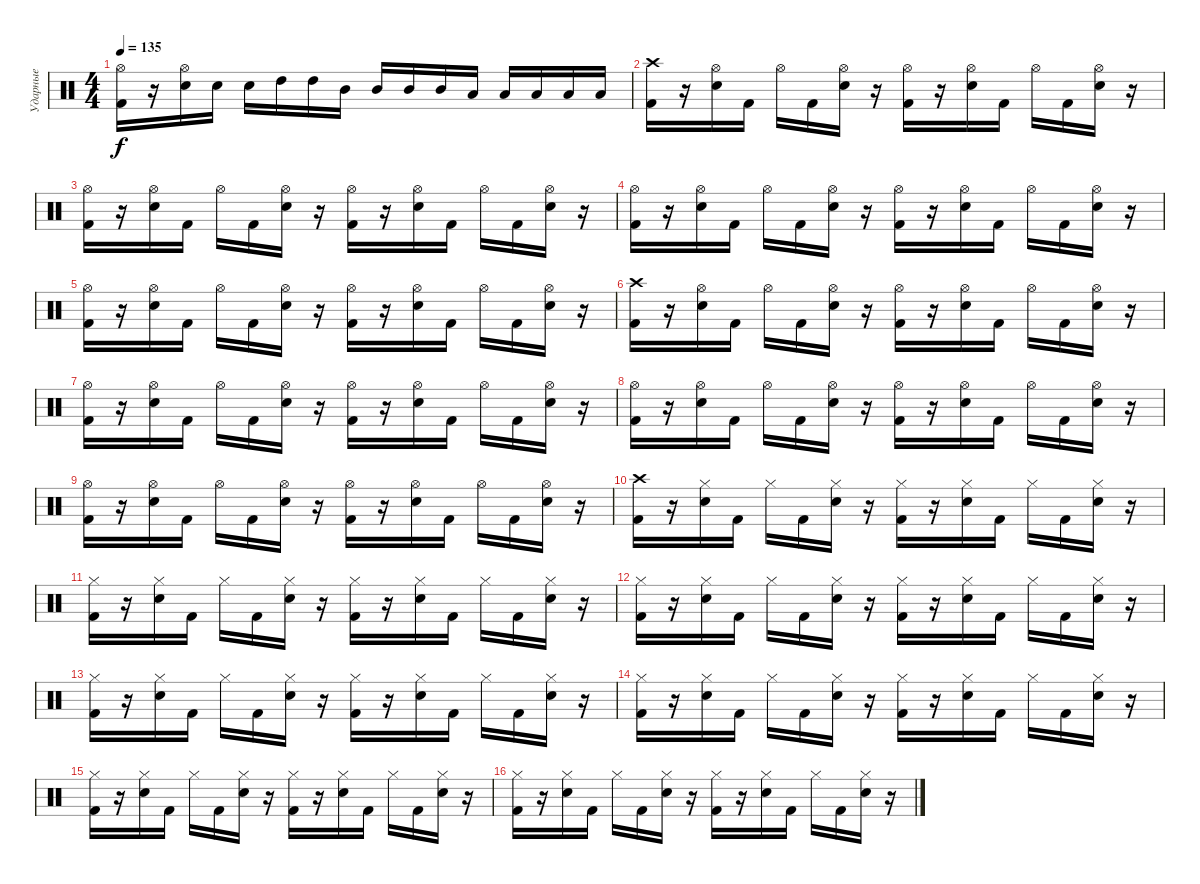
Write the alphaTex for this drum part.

\track ("Ударные" "Ударные") {instrument percussion}
\staff {score}
\articulation defaults
\ts (4 4)
\tempo 135
\clef neutral
\ks c
("Kick (hit) 2" "Hi-Hat (open)").16{dy f} r.16 ("Electric Snare (hit)" "Hi-Hat (open)").16 "Electric Snare (hit)".16 "Electric Snare (hit)".16 "High Tom (hit)".16 "High Tom (hit)".16 "Mid Tom (hit)".16 "Mid Tom (hit)".16 "Mid Tom (hit)".16 "Mid Tom (hit)".16 "Low Tom (hit)".16 "Low Tom (hit)".16 "Low Tom (hit)".16 "Low Tom (hit)".16 "Low Tom (hit)".16 |
("Crash high (hit)" "Kick (hit) 2").16 r.16 ("Hi-Hat (open)" "Electric Snare (hit)").16 "Kick (hit) 2".16 "Hi-Hat (open)".16 "Kick (hit) 2".16 ("Hi-Hat (open)" "Electric Snare (hit)").16 r.16 ("Hi-Hat (open)" "Kick (hit) 2").16 r.16 ("Hi-Hat (open)" "Electric Snare (hit)").16 "Kick (hit) 2".16 "Hi-Hat (open)".16 "Kick (hit) 2".16 ("Hi-Hat (open)" "Electric Snare (hit)").16 r.16 |
("Hi-Hat (open)" "Kick (hit) 2").16 r.16 ("Hi-Hat (open)" "Electric Snare (hit)").16 "Kick (hit) 2".16 "Hi-Hat (open)".16 "Kick (hit) 2".16 ("Hi-Hat (open)" "Electric Snare (hit)").16 r.16 ("Hi-Hat (open)" "Kick (hit) 2").16 r.16 ("Hi-Hat (open)" "Electric Snare (hit)").16 "Kick (hit) 2".16 "Hi-Hat (open)".16 "Kick (hit) 2".16 ("Hi-Hat (open)" "Electric Snare (hit)").16 r.16 |
("Hi-Hat (open)" "Kick (hit) 2").16 r.16 ("Hi-Hat (open)" "Electric Snare (hit)").16 "Kick (hit) 2".16 "Hi-Hat (open)".16 "Kick (hit) 2".16 ("Hi-Hat (open)" "Electric Snare (hit)").16 r.16 ("Hi-Hat (open)" "Kick (hit) 2").16 r.16 ("Hi-Hat (open)" "Electric Snare (hit)").16 "Kick (hit) 2".16 "Hi-Hat (open)".16 "Kick (hit) 2".16 ("Hi-Hat (open)" "Electric Snare (hit)").16 r.16 |
("Hi-Hat (open)" "Kick (hit) 2").16 r.16 ("Hi-Hat (open)" "Electric Snare (hit)").16 "Kick (hit) 2".16 "Hi-Hat (open)".16 "Kick (hit) 2".16 ("Hi-Hat (open)" "Electric Snare (hit)").16 r.16 ("Hi-Hat (open)" "Kick (hit) 2").16 r.16 ("Hi-Hat (open)" "Electric Snare (hit)").16 "Kick (hit) 2".16 "Hi-Hat (open)".16 "Kick (hit) 2".16 ("Hi-Hat (open)" "Electric Snare (hit)").16 r.16 |
("Crash high (hit)" "Kick (hit) 2").16 r.16 ("Hi-Hat (open)" "Electric Snare (hit)").16 "Kick (hit) 2".16 "Hi-Hat (open)".16 "Kick (hit) 2".16 ("Hi-Hat (open)" "Electric Snare (hit)").16 r.16 ("Hi-Hat (open)" "Kick (hit) 2").16 r.16 ("Hi-Hat (open)" "Electric Snare (hit)").16 "Kick (hit) 2".16 "Hi-Hat (open)".16 "Kick (hit) 2".16 ("Hi-Hat (open)" "Electric Snare (hit)").16 r.16 |
("Hi-Hat (open)" "Kick (hit) 2").16 r.16 ("Hi-Hat (open)" "Electric Snare (hit)").16 "Kick (hit) 2".16 "Hi-Hat (open)".16 "Kick (hit) 2".16 ("Hi-Hat (open)" "Electric Snare (hit)").16 r.16 ("Hi-Hat (open)" "Kick (hit) 2").16 r.16 ("Hi-Hat (open)" "Electric Snare (hit)").16 "Kick (hit) 2".16 "Hi-Hat (open)".16 "Kick (hit) 2".16 ("Hi-Hat (open)" "Electric Snare (hit)").16 r.16 |
("Hi-Hat (open)" "Kick (hit) 2").16 r.16 ("Hi-Hat (open)" "Electric Snare (hit)").16 "Kick (hit) 2".16 "Hi-Hat (open)".16 "Kick (hit) 2".16 ("Hi-Hat (open)" "Electric Snare (hit)").16 r.16 ("Hi-Hat (open)" "Kick (hit) 2").16 r.16 ("Hi-Hat (open)" "Electric Snare (hit)").16 "Kick (hit) 2".16 "Hi-Hat (open)".16 "Kick (hit) 2".16 ("Hi-Hat (open)" "Electric Snare (hit)").16 r.16 |
("Hi-Hat (open)" "Kick (hit) 2").16 r.16 ("Hi-Hat (open)" "Electric Snare (hit)").16 "Kick (hit) 2".16 "Hi-Hat (open)".16 "Kick (hit) 2".16 ("Hi-Hat (open)" "Electric Snare (hit)").16 r.16 ("Hi-Hat (open)" "Kick (hit) 2").16 r.16 ("Hi-Hat (open)" "Electric Snare (hit)").16 "Kick (hit) 2".16 "Hi-Hat (open)".16 "Kick (hit) 2".16 ("Hi-Hat (open)" "Electric Snare (hit)").16 r.16 |
("Kick (hit) 2" "Crash high (hit)").16 r.16 ("Hi-Hat (closed)" "Electric Snare (hit)").16 "Kick (hit) 2".16 "Hi-Hat (closed)".16 "Kick (hit) 2".16 ("Hi-Hat (closed)" "Electric Snare (hit)").16 r.16 ("Hi-Hat (closed)" "Kick (hit) 2").16 r.16 ("Hi-Hat (closed)" "Electric Snare (hit)").16 "Kick (hit) 2".16 "Hi-Hat (closed)".16 "Kick (hit) 2".16 ("Hi-Hat (closed)" "Electric Snare (hit)").16 r.16 |
("Hi-Hat (closed)" "Kick (hit) 2").16 r.16 ("Hi-Hat (closed)" "Electric Snare (hit)").16 "Kick (hit) 2".16 "Hi-Hat (closed)".16 "Kick (hit) 2".16 ("Hi-Hat (closed)" "Electric Snare (hit)").16 r.16 ("Hi-Hat (closed)" "Kick (hit) 2").16 r.16 ("Hi-Hat (closed)" "Electric Snare (hit)").16 "Kick (hit) 2".16 "Hi-Hat (closed)".16 "Kick (hit) 2".16 ("Hi-Hat (closed)" "Electric Snare (hit)").16 r.16 |
("Hi-Hat (closed)" "Kick (hit) 2").16 r.16 ("Hi-Hat (closed)" "Electric Snare (hit)").16 "Kick (hit) 2".16 "Hi-Hat (closed)".16 "Kick (hit) 2".16 ("Hi-Hat (closed)" "Electric Snare (hit)").16 r.16 ("Hi-Hat (closed)" "Kick (hit) 2").16 r.16 ("Hi-Hat (closed)" "Electric Snare (hit)").16 "Kick (hit) 2".16 "Hi-Hat (closed)".16 "Kick (hit) 2".16 ("Hi-Hat (closed)" "Electric Snare (hit)").16 r.16 |
("Hi-Hat (closed)" "Kick (hit) 2").16 r.16 ("Hi-Hat (closed)" "Electric Snare (hit)").16 "Kick (hit) 2".16 "Hi-Hat (closed)".16 "Kick (hit) 2".16 ("Hi-Hat (closed)" "Electric Snare (hit)").16 r.16 ("Hi-Hat (closed)" "Kick (hit) 2").16 r.16 ("Hi-Hat (closed)" "Electric Snare (hit)").16 "Kick (hit) 2".16 "Hi-Hat (closed)".16 "Kick (hit) 2".16 ("Hi-Hat (closed)" "Electric Snare (hit)").16 r.16 |
("Hi-Hat (closed)" "Kick (hit) 2").16 r.16 ("Hi-Hat (closed)" "Electric Snare (hit)").16 "Kick (hit) 2".16 "Hi-Hat (closed)".16 "Kick (hit) 2".16 ("Hi-Hat (closed)" "Electric Snare (hit)").16 r.16 ("Hi-Hat (closed)" "Kick (hit) 2").16 r.16 ("Hi-Hat (closed)" "Electric Snare (hit)").16 "Kick (hit) 2".16 "Hi-Hat (closed)".16 "Kick (hit) 2".16 ("Hi-Hat (closed)" "Electric Snare (hit)").16 r.16 |
("Hi-Hat (closed)" "Kick (hit) 2").16 r.16 ("Hi-Hat (closed)" "Electric Snare (hit)").16 "Kick (hit) 2".16 "Hi-Hat (closed)".16 "Kick (hit) 2".16 ("Hi-Hat (closed)" "Electric Snare (hit)").16 r.16 ("Hi-Hat (closed)" "Kick (hit) 2").16 r.16 ("Hi-Hat (closed)" "Electric Snare (hit)").16 "Kick (hit) 2".16 "Hi-Hat (closed)".16 "Kick (hit) 2".16 ("Hi-Hat (closed)" "Electric Snare (hit)").16 r.16 |
("Hi-Hat (closed)" "Kick (hit) 2").16 r.16 ("Hi-Hat (closed)" "Electric Snare (hit)").16 "Kick (hit) 2".16 "Hi-Hat (closed)".16 "Kick (hit) 2".16 ("Hi-Hat (closed)" "Electric Snare (hit)").16 r.16 ("Hi-Hat (closed)" "Kick (hit) 2").16 r.16 ("Hi-Hat (closed)" "Electric Snare (hit)").16 "Kick (hit) 2".16 "Hi-Hat (closed)".16 "Kick (hit) 2".16 ("Hi-Hat (closed)" "Electric Snare (hit)").16 r.16
